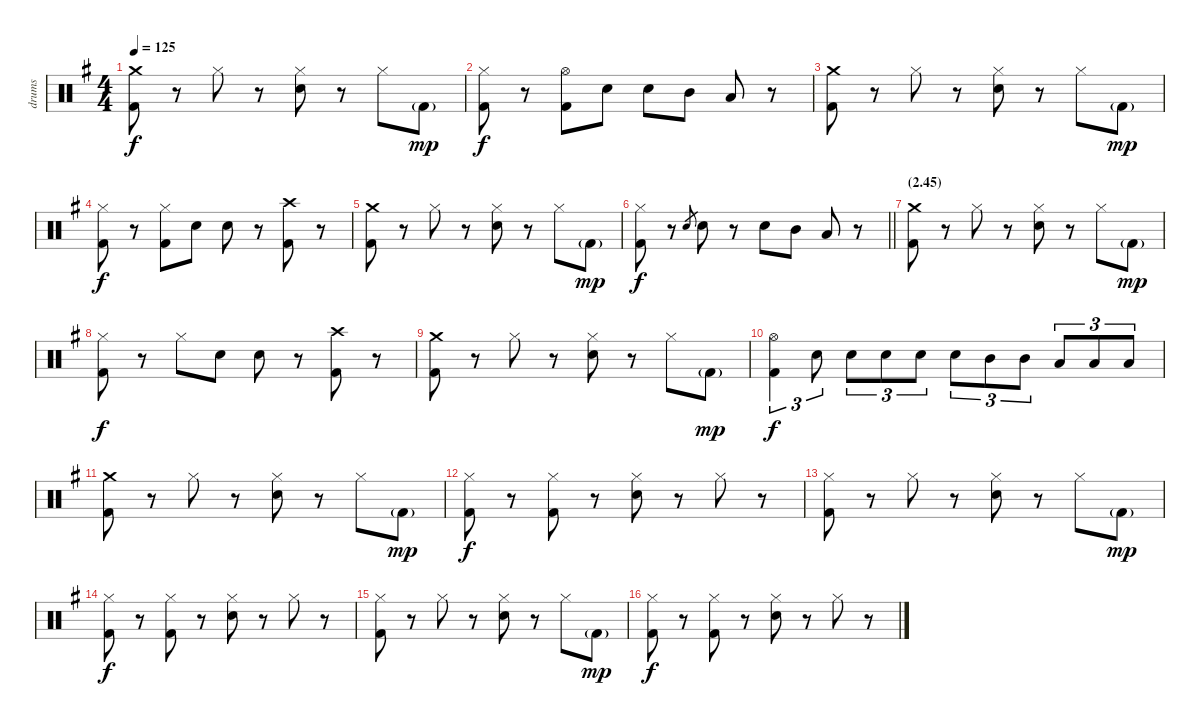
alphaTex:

\track ("drums" "drums") {instrument percussion}
\staff {score}
\articulation defaults
\ts (4 4)
\tempo 125
\clef neutral
\ks g
("Crash medium (hit)" "Kick (hit) 2").8{dy f} r.8 "Hi-Hat (closed)".8 r.8 ("Hi-Hat (closed)" "Electric Snare (hit)").8 r.8 "Hi-Hat (closed)".8 "Kick (hit) 2"{g}.8{dy mp} |
("Hi-Hat (closed)" "Kick (hit) 2").8{dy f} r.8 ("Hi-Hat (open)" "Kick (hit) 2").8 "Electric Snare (hit)".8 "Electric Snare (hit)".8 "Mid Tom (hit)".8 "Low Tom (hit)".8 r.8 |
("Crash medium (hit)" "Kick (hit) 2").8 r.8 "Hi-Hat (closed)".8 r.8 ("Hi-Hat (closed)" "Electric Snare (hit)").8 r.8 "Hi-Hat (closed)".8 "Kick (hit) 2"{g}.8{dy mp} |
("Hi-Hat (closed)" "Kick (hit) 2").8{dy f} r.8 ("Hi-Hat (closed)" "Kick (hit) 2").8 "Electric Snare (hit)".8 "Electric Snare (hit)".8 r.8 ("Crash high (hit)" "Kick (hit) 2").8 r.8 |
("Crash medium (hit)" "Kick (hit) 2").8 r.8 "Hi-Hat (closed)".8 r.8 ("Hi-Hat (closed)" "Electric Snare (hit)").8 r.8 "Hi-Hat (closed)".8 "Kick (hit) 2"{g}.8{dy mp} |
\barLineRight lightlight
("Hi-Hat (closed)" "Kick (hit) 2").8{dy f} r.8 "Electric Snare (hit)".8{gr} "Electric Snare (hit)".8 r.8 "Electric Snare (hit)".8 "Mid Tom (hit)".8 "Low Tom (hit)".8 r.8 |
\section ("" "(2.45)")
("Crash medium (hit)" "Kick (hit) 2").8 r.8 "Hi-Hat (closed)".8 r.8 ("Hi-Hat (closed)" "Electric Snare (hit)").8 r.8 "Hi-Hat (closed)".8 "Kick (hit) 2"{g}.8{dy mp} |
("Hi-Hat (closed)" "Kick (hit) 2").8{dy f} r.8 "Hi-Hat (closed)".8 "Electric Snare (hit)".8 "Electric Snare (hit)".8 r.8 ("Crash high (hit)" "Kick (hit) 2").8 r.8 |
("Crash medium (hit)" "Kick (hit) 2").8 r.8 "Hi-Hat (closed)".8 r.8 ("Hi-Hat (closed)" "Electric Snare (hit)").8 r.8 "Hi-Hat (closed)".8 "Kick (hit) 2"{g}.8{dy mp} |
("Hi-Hat (open)" "Kick (hit) 2").4{tu (3 2) dy f} "Electric Snare (hit)".8{tu (3 2)} "Electric Snare (hit)".8{tu (3 2)} "Electric Snare (hit)".8{tu (3 2)} "Electric Snare (hit)".8{tu (3 2)} "Electric Snare (hit)".8{tu (3 2)} "Mid Tom (hit)".8{tu (3 2)} "Mid Tom (hit)".8{tu (3 2)} "Low Tom (hit)".8{tu (3 2)} "Low Tom (hit)".8{tu (3 2)} "Low Tom (hit)".8{tu (3 2)} |
("Crash medium (hit)" "Kick (hit) 2").8 r.8 "Hi-Hat (closed)".8 r.8 ("Hi-Hat (closed)" "Electric Snare (hit)").8 r.8 "Hi-Hat (closed)".8 "Kick (hit) 2"{g}.8{dy mp} |
("Hi-Hat (closed)" "Kick (hit) 2").8{dy f} r.8 ("Hi-Hat (closed)" "Kick (hit) 2").8 r.8 ("Hi-Hat (closed)" "Electric Snare (hit)").8 r.8 "Hi-Hat (closed)".8 r.8 |
("Hi-Hat (closed)" "Kick (hit) 2").8 r.8 "Hi-Hat (closed)".8 r.8 ("Hi-Hat (closed)" "Electric Snare (hit)").8 r.8 "Hi-Hat (closed)".8 "Kick (hit) 2"{g}.8{dy mp} |
("Hi-Hat (closed)" "Kick (hit) 2").8{dy f} r.8 ("Hi-Hat (closed)" "Kick (hit) 2").8 r.8 ("Hi-Hat (closed)" "Electric Snare (hit)").8 r.8 "Hi-Hat (closed)".8 r.8 |
("Hi-Hat (closed)" "Kick (hit) 2").8 r.8 "Hi-Hat (closed)".8 r.8 ("Hi-Hat (closed)" "Electric Snare (hit)").8 r.8 "Hi-Hat (closed)".8 "Kick (hit) 2"{g}.8{dy mp} |
("Hi-Hat (closed)" "Kick (hit) 2").8{dy f} r.8 ("Hi-Hat (closed)" "Kick (hit) 2").8 r.8 ("Hi-Hat (closed)" "Electric Snare (hit)").8 r.8 "Hi-Hat (closed)".8 r.8
